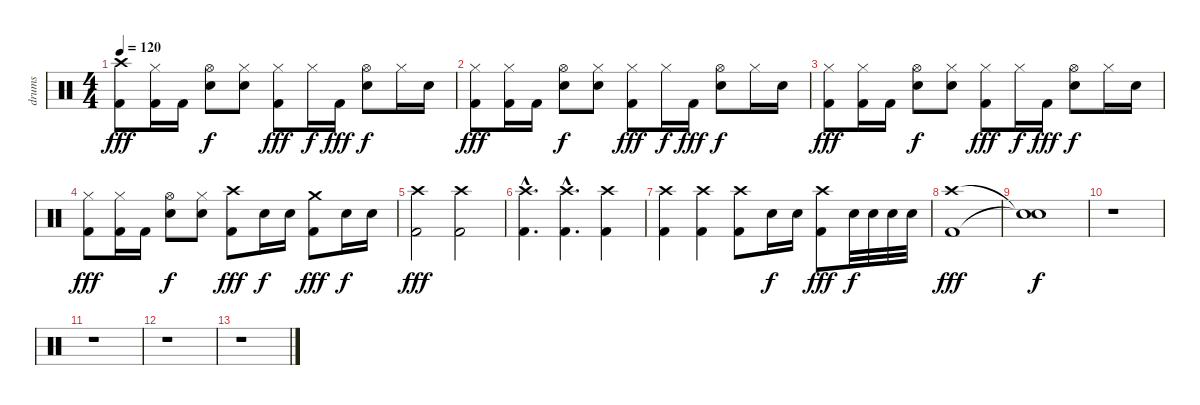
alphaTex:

\track ("drums" "drums") {instrument percussion}
\staff {score}
\articulation defaults
\ts (4 4)
\tempo 120
\clef neutral
\ks c
("Crash high (hit)" "Kick (hit) 2").8{dy fff} ("Hi-Hat (closed)" "Kick (hit) 2").16 "Kick (hit) 2".16 ("Hi-Hat (open)" "Snare (hit) 2").8{dy f} ("Hi-Hat (closed)" "Snare (hit) 2").8 ("Hi-Hat (closed)" "Kick (hit) 2").8{dy fff} "Hi-Hat (closed)".16{dy f} "Kick (hit) 2".16{dy fff} ("Hi-Hat (open)" "Snare (hit) 2").8{dy f} "Hi-Hat (closed)".16 "Snare (hit) 2".16 |
("Hi-Hat (closed)" "Kick (hit) 2").8{dy fff} ("Hi-Hat (closed)" "Kick (hit) 2").16 "Kick (hit) 2".16 ("Hi-Hat (open)" "Snare (hit) 2").8{dy f} ("Hi-Hat (closed)" "Snare (hit) 2").8 ("Hi-Hat (closed)" "Kick (hit) 2").8{dy fff} "Hi-Hat (closed)".16{dy f} "Kick (hit) 2".16{dy fff} ("Hi-Hat (open)" "Snare (hit) 2").8{dy f} "Hi-Hat (closed)".16 "Snare (hit) 2".16 |
("Hi-Hat (closed)" "Kick (hit) 2").8{dy fff} ("Hi-Hat (closed)" "Kick (hit) 2").16 "Kick (hit) 2".16 ("Hi-Hat (open)" "Snare (hit) 2").8{dy f} ("Hi-Hat (closed)" "Snare (hit) 2").8 ("Hi-Hat (closed)" "Kick (hit) 2").8{dy fff} "Hi-Hat (closed)".16{dy f} "Kick (hit) 2".16{dy fff} ("Hi-Hat (open)" "Snare (hit) 2").8{dy f} "Hi-Hat (closed)".16 "Snare (hit) 2".16 |
("Hi-Hat (closed)" "Kick (hit) 2").8{dy fff} ("Hi-Hat (closed)" "Kick (hit) 2").16 "Kick (hit) 2".16 ("Hi-Hat (open)" "Snare (hit) 2").8{dy f} ("Hi-Hat (closed)" "Snare (hit) 2").8 ("Crash high (hit)" "Kick (hit) 2").8{dy fff} "Snare (hit) 2".16{dy f} "Snare (hit) 2".16 ("Crash medium (hit)" "Kick (hit) 2").8{dy fff} "Snare (hit) 2".16{dy f} "Snare (hit) 2".16 |
("Crash high (hit)" "Kick (hit) 2").2{dy fff} ("Crash high (hit)" "Kick (hit) 2").2 |
("Crash high (hit)"{hac} "Kick (hit) 2"{hac}).4{d} ("Crash high (hit)"{hac} "Kick (hit) 2"{hac}).4{d} ("Crash high (hit)" "Kick (hit) 2").4 |
("Crash high (hit)" "Kick (hit) 2").4 ("Crash high (hit)" "Kick (hit) 2").4 ("Crash high (hit)" "Kick (hit) 2").8 "Snare (hit) 2".16{dy f} "Snare (hit) 2".16 ("Crash high (hit)" "Kick (hit) 2").8{dy fff} "Snare (hit) 2".32{dy f} "Snare (hit) 2".32 "Snare (hit) 2".32 "Snare (hit) 2".32 |
("Crash high (hit)" "Kick (hit) 2").1{dy fff} |
("Snare (hit)"{t} "Snare (hit)"{t}).1{dy f} |
r.1 |
r.1 |
r.1 |
r.1
